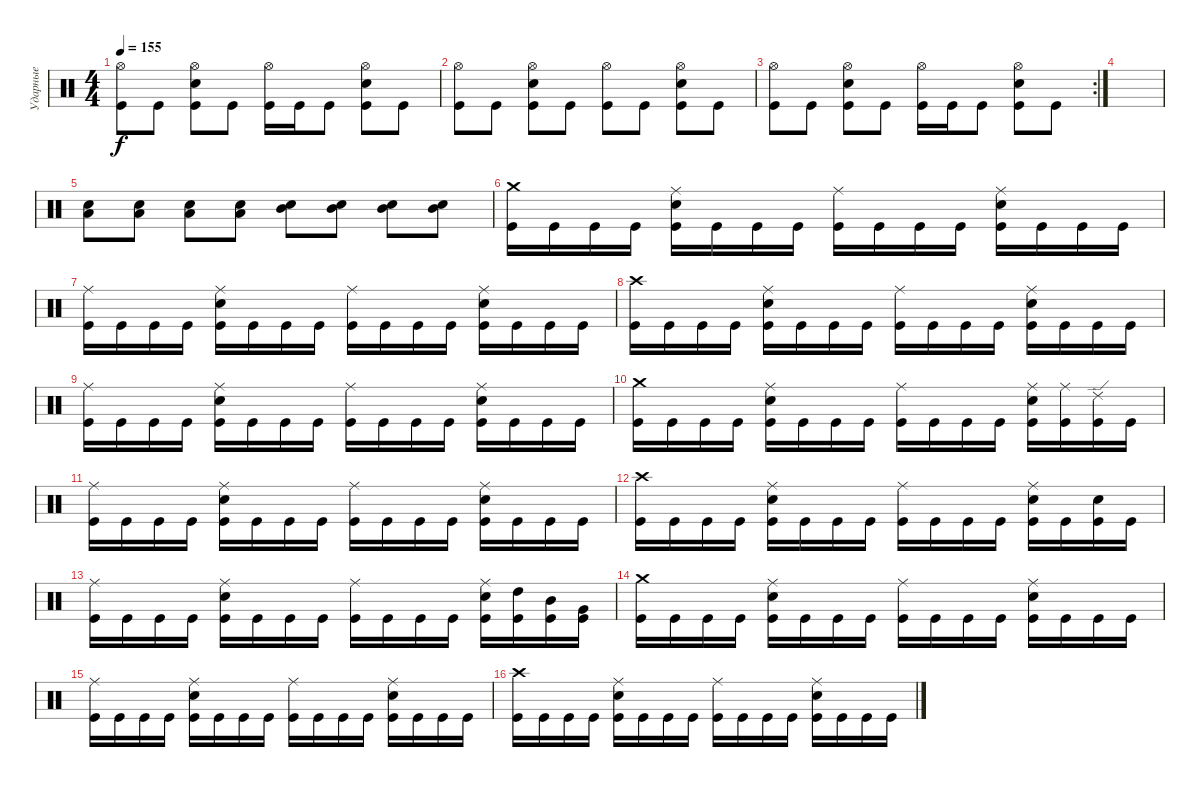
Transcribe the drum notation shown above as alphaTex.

\track ("Ударные" "Ударные") {instrument percussion}
\staff {score}
\articulation defaults
\ts (4 4)
\tempo 155
\clef neutral
\ks c
("Hi-Hat (open)" "Kick (hit)").8{dy f} "Kick (hit)".8 ("Snare (hit) 2" "Hi-Hat (open)" "Kick (hit)").8 "Kick (hit)".8 ("Hi-Hat (open)" "Kick (hit)").16 "Kick (hit)".16 "Kick (hit)".8 ("Snare (hit) 2" "Hi-Hat (open)" "Kick (hit)").8 "Kick (hit)".8 |
("Hi-Hat (open)" "Kick (hit)").8 "Kick (hit)".8 ("Snare (hit) 2" "Hi-Hat (open)" "Kick (hit)").8 "Kick (hit)".8 ("Hi-Hat (open)" "Kick (hit)").8 "Kick (hit)".8 ("Snare (hit) 2" "Hi-Hat (open)" "Kick (hit)").8 "Kick (hit)".8 |
\rc 2
("Hi-Hat (open)" "Kick (hit)").8 "Kick (hit)".8 ("Snare (hit) 2" "Hi-Hat (open)" "Kick (hit)").8 "Kick (hit)".8 ("Hi-Hat (open)" "Kick (hit)").16 "Kick (hit)".16 "Kick (hit)".8 ("Snare (hit) 2" "Hi-Hat (open)" "Kick (hit)").8 "Kick (hit)".8 |
|
("Snare (hit) 2" "Low Tom (hit)").8{volume 1} ("Snare (hit) 2" "Low Tom (hit)").8{volume 13} ("Snare (hit) 2" "Low Tom (hit)").8 ("Snare (hit) 2" "Low Tom (hit)").8 ("Snare (hit) 2" "Mid Tom (hit)").8 ("Snare (hit) 2" "Mid Tom (hit)").8 ("Snare (hit) 2" "Mid Tom (hit)").8 ("Snare (hit) 2" "Mid Tom (hit)").8 |
("Crash medium (hit)" "Kick (hit)").16 "Kick (hit)".16 "Kick (hit)".16 "Kick (hit)".16 ("Snare (hit) 2" "Ride (middle)" "Kick (hit)").16 "Kick (hit)".16 "Kick (hit)".16 "Kick (hit)".16 ("Ride (middle)" "Kick (hit)").16 "Kick (hit)".16 "Kick (hit)".16 "Kick (hit)".16 ("Snare (hit) 2" "Ride (middle)" "Kick (hit)").16 "Kick (hit)".16 "Kick (hit)".16 "Kick (hit)".16 |
("Ride (middle)" "Kick (hit)").16 "Kick (hit)".16 "Kick (hit)".16 "Kick (hit)".16 ("Snare (hit) 2" "Ride (middle)" "Kick (hit)").16 "Kick (hit)".16 "Kick (hit)".16 "Kick (hit)".16 ("Ride (middle)" "Kick (hit)").16 "Kick (hit)".16 "Kick (hit)".16 "Kick (hit)".16 ("Snare (hit) 2" "Ride (middle)" "Kick (hit)").16 "Kick (hit)".16 "Kick (hit)".16 "Kick (hit)".16 |
("Crash high (hit)" "Kick (hit)").16 "Kick (hit)".16 "Kick (hit)".16 "Kick (hit)".16 ("Snare (hit) 2" "Ride (middle)" "Kick (hit)").16 "Kick (hit)".16 "Kick (hit)".16 "Kick (hit)".16 ("Ride (middle)" "Kick (hit)").16 "Kick (hit)".16 "Kick (hit)".16 "Kick (hit)".16 ("Snare (hit) 2" "Ride (middle)" "Kick (hit)").16 "Kick (hit)".16 "Kick (hit)".16 "Kick (hit)".16 |
("Ride (middle)" "Kick (hit)").16 "Kick (hit)".16 "Kick (hit)".16 "Kick (hit)".16 ("Snare (hit) 2" "Ride (middle)" "Kick (hit)").16 "Kick (hit)".16 "Kick (hit)".16 "Kick (hit)".16 ("Ride (middle)" "Kick (hit)").16 "Kick (hit)".16 "Kick (hit)".16 "Kick (hit)".16 ("Snare (hit) 2" "Ride (middle)" "Kick (hit)").16 "Kick (hit)".16 "Kick (hit)".16 "Kick (hit)".16 |
("Crash medium (hit)" "Kick (hit)").16 "Kick (hit)".16 "Kick (hit)".16 "Kick (hit)".16 ("Snare (hit) 2" "Ride (middle)" "Kick (hit)").16 "Kick (hit)".16 "Kick (hit)".16 "Kick (hit)".16 ("Ride (middle)" "Kick (hit)").16 "Kick (hit)".16 "Kick (hit)".16 "Kick (hit)".16 ("Snare (hit) 2" "Ride (middle)" "Kick (hit)").16 ("Ride (middle)" "Kick (hit)").16 ("Ride (edge) 2" "Kick (hit)").16 "Kick (hit)".16 |
("Ride (middle)" "Kick (hit)").16 "Kick (hit)".16 "Kick (hit)".16 "Kick (hit)".16 ("Snare (hit) 2" "Ride (middle)" "Kick (hit)").16 "Kick (hit)".16 "Kick (hit)".16 "Kick (hit)".16 ("Ride (middle)" "Kick (hit)").16 "Kick (hit)".16 "Kick (hit)".16 "Kick (hit)".16 ("Snare (hit) 2" "Ride (middle)" "Kick (hit)").16 "Kick (hit)".16 "Kick (hit)".16 "Kick (hit)".16 |
("Crash high (hit)" "Kick (hit)").16 "Kick (hit)".16 "Kick (hit)".16 "Kick (hit)".16 ("Snare (hit) 2" "Ride (middle)" "Kick (hit)").16 "Kick (hit)".16 "Kick (hit)".16 "Kick (hit)".16 ("Ride (middle)" "Kick (hit)").16 "Kick (hit)".16 "Kick (hit)".16 "Kick (hit)".16 ("Snare (hit) 2" "Ride (middle)" "Kick (hit)").16 "Kick (hit)".16 ("Snare (hit) 2" "Kick (hit)").16 "Kick (hit)".16 |
("Ride (middle)" "Kick (hit)").16 "Kick (hit)".16 "Kick (hit)".16 "Kick (hit)".16 ("Snare (hit) 2" "Ride (middle)" "Kick (hit)").16 "Kick (hit)".16 "Kick (hit)".16 "Kick (hit)".16 ("Ride (middle)" "Kick (hit)").16 "Kick (hit)".16 "Kick (hit)".16 "Kick (hit)".16 ("Snare (hit) 2" "Ride (middle)" "Kick (hit)").16 ("High Tom (hit)" "Kick (hit)").16 ("Mid Tom (hit)" "Kick (hit)").16 ("Very Low Tom (hit)" "Kick (hit)").16 |
("Crash medium (hit)" "Kick (hit)").16 "Kick (hit)".16 "Kick (hit)".16 "Kick (hit)".16 ("Snare (hit) 2" "Ride (middle)" "Kick (hit)").16 "Kick (hit)".16 "Kick (hit)".16 "Kick (hit)".16 ("Ride (middle)" "Kick (hit)").16 "Kick (hit)".16 "Kick (hit)".16 "Kick (hit)".16 ("Snare (hit) 2" "Ride (middle)" "Kick (hit)").16 "Kick (hit)".16 "Kick (hit)".16 "Kick (hit)".16 |
("Ride (middle)" "Kick (hit)").16 "Kick (hit)".16 "Kick (hit)".16 "Kick (hit)".16 ("Snare (hit) 2" "Ride (middle)" "Kick (hit)").16 "Kick (hit)".16 "Kick (hit)".16 "Kick (hit)".16 ("Ride (middle)" "Kick (hit)").16 "Kick (hit)".16 "Kick (hit)".16 "Kick (hit)".16 ("Snare (hit) 2" "Ride (middle)" "Kick (hit)").16 "Kick (hit)".16 "Kick (hit)".16 "Kick (hit)".16 |
("Crash high (hit)" "Kick (hit)").16 "Kick (hit)".16 "Kick (hit)".16 "Kick (hit)".16 ("Snare (hit) 2" "Ride (middle)" "Kick (hit)").16 "Kick (hit)".16 "Kick (hit)".16 "Kick (hit)".16 ("Ride (middle)" "Kick (hit)").16 "Kick (hit)".16 "Kick (hit)".16 "Kick (hit)".16 ("Snare (hit) 2" "Ride (middle)" "Kick (hit)").16 "Kick (hit)".16 "Kick (hit)".16 "Kick (hit)".16
